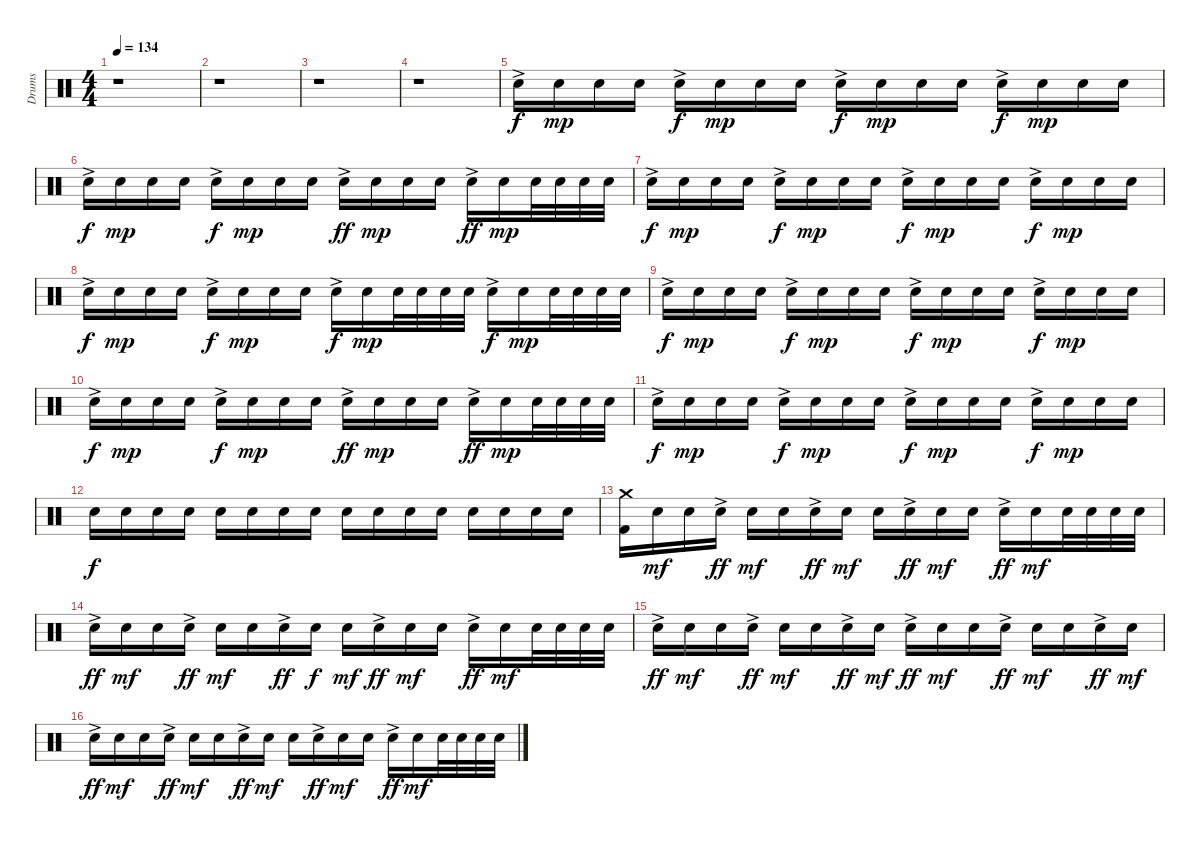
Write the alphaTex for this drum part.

\track ("Drums" "Drums") {instrument percussion}
\staff {score}
\articulation defaults
\ts (4 4)
\tempo 134
\clef neutral
\ks c
r.1{dy f} |
r.1 |
r.1 |
r.1 |
"Electric Snare (hit)"{ac}.16 "Electric Snare (hit)".16{dy mp} "Electric Snare (hit)".16 "Electric Snare (hit)".16 "Electric Snare (hit)"{ac}.16{dy f} "Electric Snare (hit)".16{dy mp} "Electric Snare (hit)".16 "Electric Snare (hit)".16 "Electric Snare (hit)"{ac}.16{dy f} "Electric Snare (hit)".16{dy mp} "Electric Snare (hit)".16 "Electric Snare (hit)".16 "Electric Snare (hit)"{ac}.16{dy f} "Electric Snare (hit)".16{dy mp} "Electric Snare (hit)".16 "Electric Snare (hit)".16 |
"Electric Snare (hit)"{ac}.16{dy f} "Electric Snare (hit)".16{dy mp} "Electric Snare (hit)".16 "Electric Snare (hit)".16 "Electric Snare (hit)"{ac}.16{dy f volume 13} "Electric Snare (hit)".16{dy mp} "Electric Snare (hit)".16 "Electric Snare (hit)".16 "Electric Snare (hit)"{ac}.16{dy ff} "Electric Snare (hit)".16{dy mp} "Electric Snare (hit)".16 "Electric Snare (hit)".16 "Electric Snare (hit)"{ac}.16{dy ff} "Electric Snare (hit)".16{dy mp} "Electric Snare (hit)".32 "Electric Snare (hit)".32 "Electric Snare (hit)".32 "Electric Snare (hit)".32 |
"Electric Snare (hit)"{ac}.16{dy f} "Electric Snare (hit)".16{dy mp} "Electric Snare (hit)".16 "Electric Snare (hit)".16 "Electric Snare (hit)"{ac}.16{dy f} "Electric Snare (hit)".16{dy mp} "Electric Snare (hit)".16 "Electric Snare (hit)".16 "Electric Snare (hit)"{ac}.16{dy f} "Electric Snare (hit)".16{dy mp} "Electric Snare (hit)".16 "Electric Snare (hit)".16 "Electric Snare (hit)"{ac}.16{dy f} "Electric Snare (hit)".16{dy mp} "Electric Snare (hit)".16 "Electric Snare (hit)".16 |
"Electric Snare (hit)"{ac}.16{dy f} "Electric Snare (hit)".16{dy mp} "Electric Snare (hit)".16 "Electric Snare (hit)".16 "Electric Snare (hit)"{ac}.16{dy f} "Electric Snare (hit)".16{dy mp} "Electric Snare (hit)".16 "Electric Snare (hit)".16 "Electric Snare (hit)"{ac}.16{dy f} "Electric Snare (hit)".16{dy mp} "Electric Snare (hit)".32 "Electric Snare (hit)".32 "Electric Snare (hit)".32 "Electric Snare (hit)".32 "Electric Snare (hit)"{ac}.16{dy f} "Electric Snare (hit)".16{dy mp} "Electric Snare (hit)".32 "Electric Snare (hit)".32 "Electric Snare (hit)".32 "Electric Snare (hit)".32 |
"Electric Snare (hit)"{ac}.16{dy f} "Electric Snare (hit)".16{dy mp} "Electric Snare (hit)".16 "Electric Snare (hit)".16 "Electric Snare (hit)"{ac}.16{dy f} "Electric Snare (hit)".16{dy mp} "Electric Snare (hit)".16 "Electric Snare (hit)".16 "Electric Snare (hit)"{ac}.16{dy f} "Electric Snare (hit)".16{dy mp} "Electric Snare (hit)".16 "Electric Snare (hit)".16 "Electric Snare (hit)"{ac}.16{dy f} "Electric Snare (hit)".16{dy mp} "Electric Snare (hit)".16 "Electric Snare (hit)".16 |
"Electric Snare (hit)"{ac}.16{dy f} "Electric Snare (hit)".16{dy mp} "Electric Snare (hit)".16 "Electric Snare (hit)".16 "Electric Snare (hit)"{ac}.16{dy f} "Electric Snare (hit)".16{dy mp} "Electric Snare (hit)".16 "Electric Snare (hit)".16 "Electric Snare (hit)"{ac}.16{dy ff} "Electric Snare (hit)".16{dy mp} "Electric Snare (hit)".16 "Electric Snare (hit)".16 "Electric Snare (hit)"{ac}.16{dy ff} "Electric Snare (hit)".16{dy mp} "Electric Snare (hit)".32 "Electric Snare (hit)".32 "Electric Snare (hit)".32 "Electric Snare (hit)".32 |
"Electric Snare (hit)"{ac}.16{dy f} "Electric Snare (hit)".16{dy mp} "Electric Snare (hit)".16 "Electric Snare (hit)".16 "Electric Snare (hit)"{ac}.16{dy f} "Electric Snare (hit)".16{dy mp} "Electric Snare (hit)".16 "Electric Snare (hit)".16 "Electric Snare (hit)"{ac}.16{dy f} "Electric Snare (hit)".16{dy mp} "Electric Snare (hit)".16 "Electric Snare (hit)".16 "Electric Snare (hit)"{ac}.16{dy f} "Electric Snare (hit)".16{dy mp} "Electric Snare (hit)".16 "Electric Snare (hit)".16 |
"Electric Snare (hit)".16{dy f} "Electric Snare (hit)".16 "Electric Snare (hit)".16 "Electric Snare (hit)".16 "Electric Snare (hit)".16 "Electric Snare (hit)".16 "Electric Snare (hit)".16 "Electric Snare (hit)".16 "Electric Snare (hit)".16 "Electric Snare (hit)".16 "Electric Snare (hit)".16 "Electric Snare (hit)".16 "Electric Snare (hit)".16 "Electric Snare (hit)".16 "Electric Snare (hit)".16 "Electric Snare (hit)".16 |
("Crash medium (hit)" "Kick (hit) 2").16 "Electric Snare (hit)".16{dy mf} "Electric Snare (hit)".16 "Electric Snare (hit)"{ac}.16{dy ff} "Electric Snare (hit)".16{dy mf} "Electric Snare (hit)".16 "Electric Snare (hit)"{ac}.16{dy ff} "Electric Snare (hit)".16{dy mf} "Electric Snare (hit)".16 "Electric Snare (hit)"{ac}.16{dy ff} "Electric Snare (hit)".16{dy mf} "Electric Snare (hit)".16 "Electric Snare (hit)"{ac}.16{dy ff} "Electric Snare (hit)".16{dy mf} "Electric Snare (hit)".32 "Electric Snare (hit)".32 "Electric Snare (hit)".32 "Electric Snare (hit)".32 |
"Electric Snare (hit)"{ac}.16{dy ff} "Electric Snare (hit)".16{dy mf} "Electric Snare (hit)".16 "Electric Snare (hit)"{ac}.16{dy ff} "Electric Snare (hit)".16{dy mf} "Electric Snare (hit)".16 "Electric Snare (hit)"{ac}.16{dy ff} "Electric Snare (hit)".16{dy f} "Electric Snare (hit)".16{dy mf} "Electric Snare (hit)"{ac}.16{dy ff} "Electric Snare (hit)".16{dy mf} "Electric Snare (hit)".16 "Electric Snare (hit)"{ac}.16{dy ff} "Electric Snare (hit)".16{dy mf} "Electric Snare (hit)".32 "Electric Snare (hit)".32 "Electric Snare (hit)".32 "Electric Snare (hit)".32 |
"Electric Snare (hit)"{ac}.16{dy ff} "Electric Snare (hit)".16{dy mf} "Electric Snare (hit)".16 "Electric Snare (hit)"{ac}.16{dy ff} "Electric Snare (hit)".16{dy mf} "Electric Snare (hit)".16 "Electric Snare (hit)"{ac}.16{dy ff} "Electric Snare (hit)".16{dy mf} "Electric Snare (hit)"{ac}.16{dy ff} "Electric Snare (hit)".16{dy mf} "Electric Snare (hit)".16 "Electric Snare (hit)"{ac}.16{dy ff} "Electric Snare (hit)".16{dy mf} "Electric Snare (hit)".16 "Electric Snare (hit)"{ac}.16{dy ff} "Electric Snare (hit)".16{dy mf} |
"Electric Snare (hit)"{ac}.16{dy ff} "Electric Snare (hit)".16{dy mf} "Electric Snare (hit)".16 "Electric Snare (hit)"{ac}.16{dy ff} "Electric Snare (hit)".16{dy mf} "Electric Snare (hit)".16 "Electric Snare (hit)"{ac}.16{dy ff} "Electric Snare (hit)".16{dy mf} "Electric Snare (hit)".16 "Electric Snare (hit)"{ac}.16{dy ff} "Electric Snare (hit)".16{dy mf} "Electric Snare (hit)".16 "Electric Snare (hit)"{ac}.16{dy ff} "Electric Snare (hit)".16{dy mf} "Electric Snare (hit)".32 "Electric Snare (hit)".32 "Electric Snare (hit)".32 "Electric Snare (hit)".32
